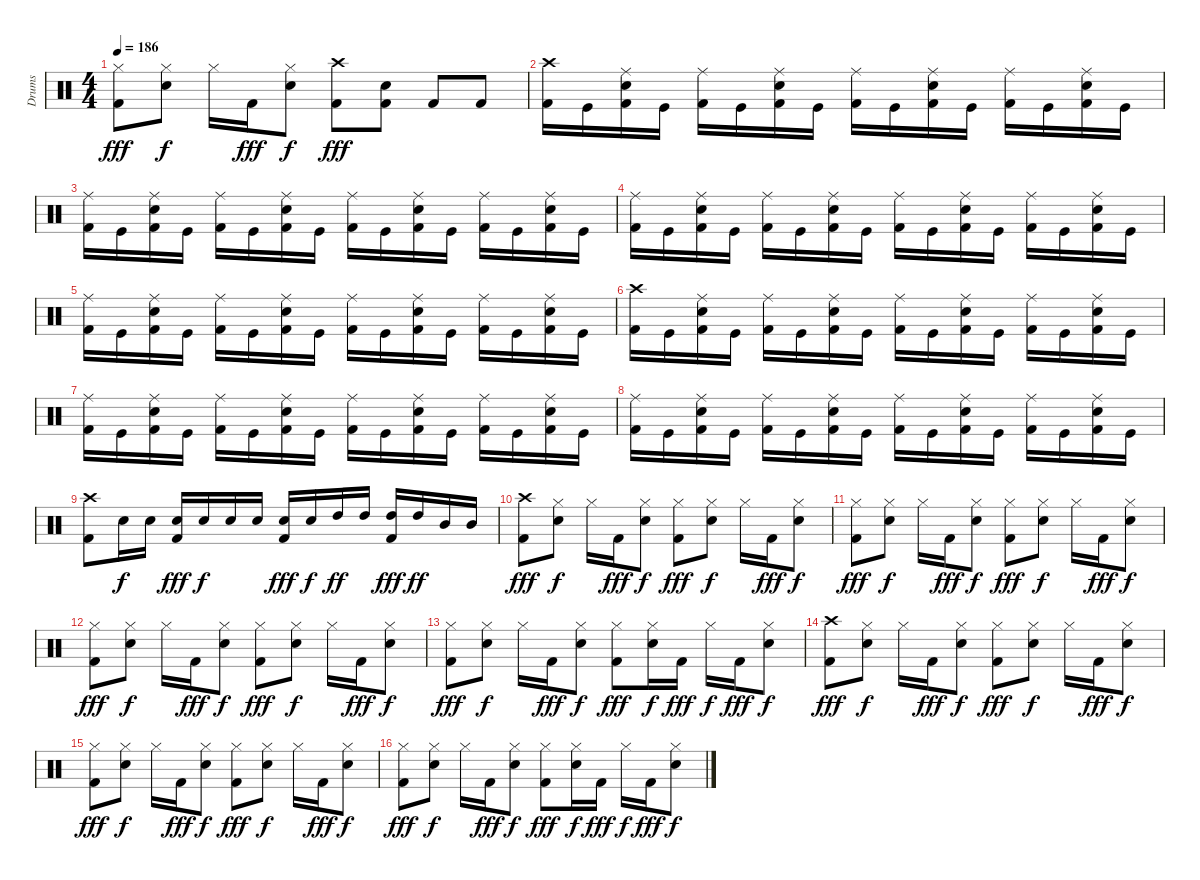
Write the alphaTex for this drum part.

\track ("Drums" "Drums") {instrument percussion}
\staff {score}
\articulation defaults
\ts (4 4)
\tempo 186
\clef neutral
\ks c
("Hi-Hat (closed)" "Kick (hit) 2").8{dy fff} ("Hi-Hat (closed)" "Electric Snare (hit)").8{dy f} "Hi-Hat (closed)".16 "Kick (hit) 2".16{dy fff} ("Hi-Hat (closed)" "Electric Snare (hit)").8{dy f} ("Crash high (hit)" "Kick (hit) 2").8{dy fff} ("Electric Snare (hit)" "Kick (hit) 2").8 "Kick (hit) 2".8 "Kick (hit) 2".8 |
("Crash high (hit)" "Kick (hit) 2").16 "Kick (hit)".16 ("Ride (middle)" "Electric Snare (hit)" "Kick (hit) 2").16 "Kick (hit)".16 ("Ride (middle)" "Kick (hit) 2").16 "Kick (hit)".16 ("Ride (middle)" "Electric Snare (hit)" "Kick (hit) 2").16 "Kick (hit)".16 ("Ride (middle)" "Kick (hit) 2").16 "Kick (hit)".16 ("Ride (middle)" "Electric Snare (hit)" "Kick (hit) 2").16 "Kick (hit)".16 ("Ride (middle)" "Kick (hit) 2").16 "Kick (hit)".16 ("Ride (middle)" "Electric Snare (hit)" "Kick (hit) 2").16 "Kick (hit)".16 |
("Ride (middle)" "Kick (hit) 2").16 "Kick (hit)".16 ("Ride (middle)" "Electric Snare (hit)" "Kick (hit) 2").16 "Kick (hit)".16 ("Ride (middle)" "Kick (hit) 2").16 "Kick (hit)".16 ("Ride (middle)" "Electric Snare (hit)" "Kick (hit) 2").16 "Kick (hit)".16 ("Ride (middle)" "Kick (hit) 2").16 "Kick (hit)".16 ("Ride (middle)" "Electric Snare (hit)" "Kick (hit) 2").16 "Kick (hit)".16 ("Ride (middle)" "Kick (hit) 2").16 "Kick (hit)".16 ("Ride (middle)" "Electric Snare (hit)" "Kick (hit) 2").16 "Kick (hit)".16 |
("Ride (middle)" "Kick (hit) 2").16 "Kick (hit)".16 ("Ride (middle)" "Electric Snare (hit)" "Kick (hit) 2").16 "Kick (hit)".16 ("Ride (middle)" "Kick (hit) 2").16 "Kick (hit)".16 ("Ride (middle)" "Electric Snare (hit)" "Kick (hit) 2").16 "Kick (hit)".16 ("Ride (middle)" "Kick (hit) 2").16 "Kick (hit)".16 ("Ride (middle)" "Electric Snare (hit)" "Kick (hit) 2").16 "Kick (hit)".16 ("Ride (middle)" "Kick (hit) 2").16 "Kick (hit)".16 ("Ride (middle)" "Electric Snare (hit)" "Kick (hit) 2").16 "Kick (hit)".16 |
("Ride (middle)" "Kick (hit) 2").16 "Kick (hit)".16 ("Ride (middle)" "Electric Snare (hit)" "Kick (hit) 2").16 "Kick (hit)".16 ("Ride (middle)" "Kick (hit) 2").16 "Kick (hit)".16 ("Ride (middle)" "Electric Snare (hit)" "Kick (hit) 2").16 "Kick (hit)".16 ("Ride (middle)" "Kick (hit) 2").16 "Kick (hit)".16 ("Ride (middle)" "Electric Snare (hit)" "Kick (hit) 2").16 "Kick (hit)".16 ("Ride (middle)" "Kick (hit) 2").16 "Kick (hit)".16 ("Ride (middle)" "Electric Snare (hit)" "Kick (hit) 2").16 "Kick (hit)".16 |
("Crash high (hit)" "Kick (hit) 2").16 "Kick (hit)".16 ("Ride (middle)" "Electric Snare (hit)" "Kick (hit) 2").16 "Kick (hit)".16 ("Ride (middle)" "Kick (hit) 2").16 "Kick (hit)".16 ("Ride (middle)" "Electric Snare (hit)" "Kick (hit) 2").16 "Kick (hit)".16 ("Ride (middle)" "Kick (hit) 2").16 "Kick (hit)".16 ("Ride (middle)" "Electric Snare (hit)" "Kick (hit) 2").16 "Kick (hit)".16 ("Ride (middle)" "Kick (hit) 2").16 "Kick (hit)".16 ("Ride (middle)" "Electric Snare (hit)" "Kick (hit) 2").16 "Kick (hit)".16 |
("Ride (middle)" "Kick (hit) 2").16 "Kick (hit)".16 ("Ride (middle)" "Electric Snare (hit)" "Kick (hit) 2").16 "Kick (hit)".16 ("Ride (middle)" "Kick (hit) 2").16 "Kick (hit)".16 ("Ride (middle)" "Electric Snare (hit)" "Kick (hit) 2").16 "Kick (hit)".16 ("Ride (middle)" "Kick (hit) 2").16 "Kick (hit)".16 ("Ride (middle)" "Electric Snare (hit)" "Kick (hit) 2").16 "Kick (hit)".16 ("Ride (middle)" "Kick (hit) 2").16 "Kick (hit)".16 ("Ride (middle)" "Electric Snare (hit)" "Kick (hit) 2").16 "Kick (hit)".16 |
("Ride (middle)" "Kick (hit) 2").16 "Kick (hit)".16 ("Ride (middle)" "Electric Snare (hit)" "Kick (hit) 2").16 "Kick (hit)".16 ("Ride (middle)" "Kick (hit) 2").16 "Kick (hit)".16 ("Ride (middle)" "Electric Snare (hit)" "Kick (hit) 2").16 "Kick (hit)".16 ("Ride (middle)" "Kick (hit) 2").16 "Kick (hit)".16 ("Ride (middle)" "Electric Snare (hit)" "Kick (hit) 2").16 "Kick (hit)".16 ("Ride (middle)" "Kick (hit) 2").16 "Kick (hit)".16 ("Ride (middle)" "Electric Snare (hit)" "Kick (hit) 2").16 "Kick (hit)".16 |
("Crash high (hit)" "Kick (hit) 2").8 "Electric Snare (hit)".16{dy f} "Electric Snare (hit)".16 ("Electric Snare (hit)" "Kick (hit) 2").16{dy fff} "Electric Snare (hit)".16{dy f} "Electric Snare (hit)".16 "Electric Snare (hit)".16 ("Electric Snare (hit)" "Kick (hit) 2").16{dy fff} "Electric Snare (hit)".16{dy f} "High Tom (hit)".16{dy ff} "High Tom (hit)".16 ("High Tom (hit)" "Kick (hit) 2").16{dy fff} "High Tom (hit)".16{dy ff} "Mid Tom (hit)".16 "Mid Tom (hit)".16 |
("Crash high (hit)" "Kick (hit) 2").8{dy fff} ("Hi-Hat (closed)" "Electric Snare (hit)").8{dy f} "Hi-Hat (closed)".16 "Kick (hit) 2".16{dy fff} ("Hi-Hat (closed)" "Electric Snare (hit)").8{dy f} ("Hi-Hat (closed)" "Kick (hit) 2").8{dy fff} ("Hi-Hat (closed)" "Electric Snare (hit)").8{dy f} "Hi-Hat (closed)".16 "Kick (hit) 2".16{dy fff} ("Hi-Hat (closed)" "Electric Snare (hit)").8{dy f} |
("Hi-Hat (closed)" "Kick (hit) 2").8{dy fff} ("Hi-Hat (closed)" "Electric Snare (hit)").8{dy f} "Hi-Hat (closed)".16 "Kick (hit) 2".16{dy fff} ("Hi-Hat (closed)" "Electric Snare (hit)").8{dy f} ("Hi-Hat (closed)" "Kick (hit) 2").8{dy fff} ("Hi-Hat (closed)" "Electric Snare (hit)").8{dy f} "Hi-Hat (closed)".16 "Kick (hit) 2".16{dy fff} ("Hi-Hat (closed)" "Electric Snare (hit)").8{dy f} |
("Hi-Hat (closed)" "Kick (hit) 2").8{dy fff} ("Hi-Hat (closed)" "Electric Snare (hit)").8{dy f} "Hi-Hat (closed)".16 "Kick (hit) 2".16{dy fff} ("Hi-Hat (closed)" "Electric Snare (hit)").8{dy f} ("Hi-Hat (closed)" "Kick (hit) 2").8{dy fff} ("Hi-Hat (closed)" "Electric Snare (hit)").8{dy f} "Hi-Hat (closed)".16 "Kick (hit) 2".16{dy fff} ("Hi-Hat (closed)" "Electric Snare (hit)").8{dy f} |
("Hi-Hat (closed)" "Kick (hit) 2").8{dy fff} ("Hi-Hat (closed)" "Electric Snare (hit)").8{dy f} "Hi-Hat (closed)".16 "Kick (hit) 2".16{dy fff} ("Hi-Hat (closed)" "Electric Snare (hit)").8{dy f} ("Hi-Hat (closed)" "Kick (hit) 2").8{dy fff} ("Hi-Hat (closed)" "Electric Snare (hit)").16{dy f} "Kick (hit) 2".16{dy fff} "Hi-Hat (closed)".16{dy f} "Kick (hit) 2".16{dy fff} ("Hi-Hat (closed)" "Electric Snare (hit)").8{dy f} |
("Crash high (hit)" "Kick (hit) 2").8{dy fff} ("Hi-Hat (closed)" "Electric Snare (hit)").8{dy f} "Hi-Hat (closed)".16 "Kick (hit) 2".16{dy fff} ("Hi-Hat (closed)" "Electric Snare (hit)").8{dy f} ("Hi-Hat (closed)" "Kick (hit) 2").8{dy fff} ("Hi-Hat (closed)" "Electric Snare (hit)").8{dy f} "Hi-Hat (closed)".16 "Kick (hit) 2".16{dy fff} ("Hi-Hat (closed)" "Electric Snare (hit)").8{dy f} |
("Hi-Hat (closed)" "Kick (hit) 2").8{dy fff} ("Hi-Hat (closed)" "Electric Snare (hit)").8{dy f} "Hi-Hat (closed)".16 "Kick (hit) 2".16{dy fff} ("Hi-Hat (closed)" "Electric Snare (hit)").8{dy f} ("Hi-Hat (closed)" "Kick (hit) 2").8{dy fff} ("Hi-Hat (closed)" "Electric Snare (hit)").8{dy f} "Hi-Hat (closed)".16 "Kick (hit) 2".16{dy fff} ("Hi-Hat (closed)" "Electric Snare (hit)").8{dy f} |
("Hi-Hat (closed)" "Kick (hit) 2").8{dy fff} ("Hi-Hat (closed)" "Electric Snare (hit)").8{dy f} "Hi-Hat (closed)".16 "Kick (hit) 2".16{dy fff} ("Hi-Hat (closed)" "Electric Snare (hit)").8{dy f} ("Hi-Hat (closed)" "Kick (hit) 2").8{dy fff} ("Hi-Hat (closed)" "Electric Snare (hit)").16{dy f} "Kick (hit) 2".16{dy fff} "Hi-Hat (closed)".16{dy f} "Kick (hit) 2".16{dy fff} ("Hi-Hat (closed)" "Electric Snare (hit)").8{dy f}
